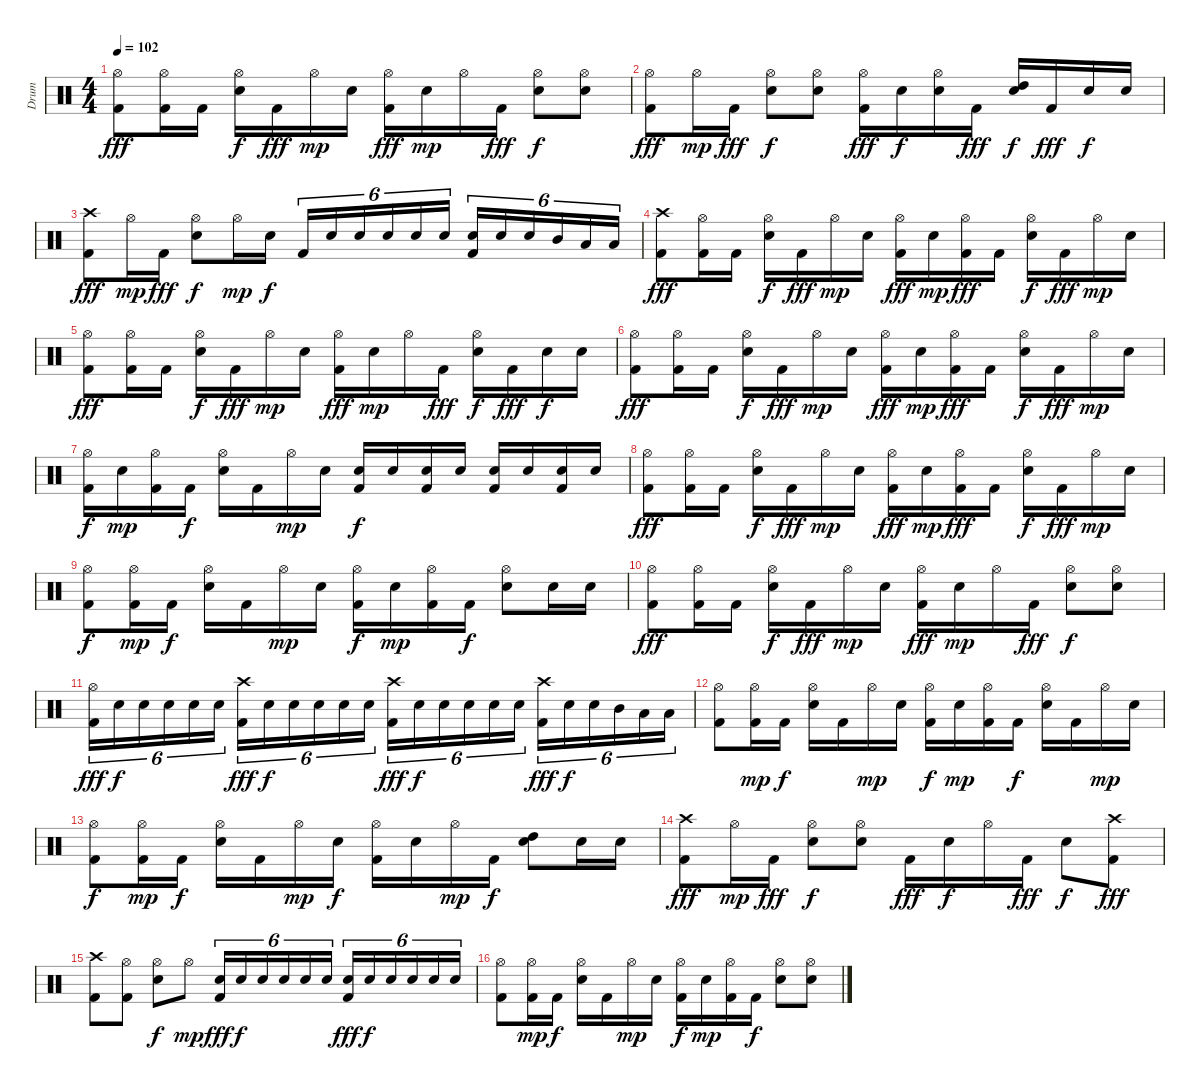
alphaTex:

\track ("Drum" "Drum") {instrument percussion}
\staff {score}
\articulation defaults
\ts (4 4)
\tempo 102
\clef neutral
\ks c
("Hi-Hat (open)" "Kick (hit) 2").8{dy fff} ("Hi-Hat (open)" "Kick (hit) 2").16 "Kick (hit) 2".16 ("Hi-Hat (open)" "Electric Snare (hit)").16{dy f} "Kick (hit) 2".16{dy fff} "Hi-Hat (open)".16{dy mp} "Electric Snare (hit)".16 ("Hi-Hat (open)" "Kick (hit) 2").16{dy fff} "Electric Snare (hit)".16{dy mp} "Hi-Hat (open)".16 "Kick (hit) 2".16{dy fff} ("Hi-Hat (open)" "Electric Snare (hit)").8{dy f} ("Hi-Hat (open)" "Electric Snare (hit)").8 |
("Hi-Hat (open)" "Kick (hit) 2").8{dy fff} "Hi-Hat (open)".16{dy mp} "Kick (hit) 2".16{dy fff} ("Hi-Hat (open)" "Electric Snare (hit)").8{dy f} ("Hi-Hat (open)" "Electric Snare (hit)").8 ("Hi-Hat (open)" "Kick (hit) 2").16{dy fff} "Electric Snare (hit)".16{dy f} ("Hi-Hat (open)" "Electric Snare (hit)").16 "Kick (hit) 2".16{dy fff} ("High Tom (hit)" "Electric Snare (hit)").16{dy f} "Kick (hit) 2".16{dy fff} "Electric Snare (hit)".16{dy f} "Electric Snare (hit)".16 |
("Crash high (hit)" "Kick (hit) 2").8{dy fff} "Hi-Hat (open)".16{dy mp} "Kick (hit) 2".16{dy fff} ("Hi-Hat (open)" "Electric Snare (hit)").8{dy f} "Hi-Hat (open)".16{dy mp} "Electric Snare (hit)".16{dy f} "Kick (hit) 2".16{tu (6 4)} "Electric Snare (hit)".16{tu (6 4)} "Electric Snare (hit)".16{tu (6 4)} "Electric Snare (hit)".16{tu (6 4)} "Electric Snare (hit)".16{tu (6 4)} "Electric Snare (hit)".16{tu (6 4)} ("Electric Snare (hit)" "Kick (hit) 2").16{tu (6 4)} "Electric Snare (hit)".16{tu (6 4)} "Electric Snare (hit)".16{tu (6 4)} "Mid Tom (hit)".16{tu (6 4)} "Low Tom (hit)".16{tu (6 4)} "Low Tom (hit)".16{tu (6 4)} |
("Crash high (hit)" "Kick (hit) 2").8{dy fff} ("Hi-Hat (open)" "Kick (hit) 2").16 "Kick (hit) 2".16 ("Hi-Hat (open)" "Electric Snare (hit)").16{dy f} "Kick (hit) 2".16{dy fff} "Hi-Hat (open)".16{dy mp} "Electric Snare (hit)".16 ("Hi-Hat (open)" "Kick (hit) 2").16{dy fff} "Electric Snare (hit)".16{dy mp} ("Hi-Hat (open)" "Kick (hit) 2").16{dy fff} "Kick (hit) 2".16 ("Hi-Hat (open)" "Electric Snare (hit)").16{dy f} "Kick (hit) 2".16{dy fff} "Hi-Hat (open)".16{dy mp} "Electric Snare (hit)".16 |
("Hi-Hat (open)" "Kick (hit) 2").8{dy fff} ("Hi-Hat (open)" "Kick (hit) 2").16 "Kick (hit) 2".16 ("Hi-Hat (open)" "Electric Snare (hit)").16{dy f} "Kick (hit) 2".16{dy fff} "Hi-Hat (open)".16{dy mp} "Electric Snare (hit)".16 ("Hi-Hat (open)" "Kick (hit) 2").16{dy fff} "Electric Snare (hit)".16{dy mp} "Hi-Hat (open)".16 "Kick (hit) 2".16{dy fff} ("Hi-Hat (open)" "Electric Snare (hit)").16{dy f} "Kick (hit) 2".16{dy fff} "Electric Snare (hit)".16{dy f} "Electric Snare (hit)".16 |
("Hi-Hat (open)" "Kick (hit) 2").8{dy fff} ("Hi-Hat (open)" "Kick (hit) 2").16 "Kick (hit) 2".16 ("Hi-Hat (open)" "Electric Snare (hit)").16{dy f} "Kick (hit) 2".16{dy fff} "Hi-Hat (open)".16{dy mp} "Electric Snare (hit)".16 ("Hi-Hat (open)" "Kick (hit) 2").16{dy fff} "Electric Snare (hit)".16{dy mp} ("Hi-Hat (open)" "Kick (hit) 2").16{dy fff} "Kick (hit) 2".16 ("Hi-Hat (open)" "Electric Snare (hit)").16{dy f} "Kick (hit) 2".16{dy fff} "Hi-Hat (open)".16{dy mp} "Electric Snare (hit)".16 |
("Hi-Hat (open)" "Kick (hit) 2").16{dy f} "Electric Snare (hit)".16{dy mp} ("Hi-Hat (open)" "Kick (hit) 2").16 "Kick (hit) 2".16{dy f} ("Hi-Hat (open)" "Electric Snare (hit)").16 "Kick (hit) 2".16 "Hi-Hat (open)".16{dy mp} "Electric Snare (hit)".16 ("Electric Snare (hit)" "Kick (hit) 2").16{dy f} "Electric Snare (hit)".16 ("Electric Snare (hit)" "Kick (hit) 2").16 "Electric Snare (hit)".16 ("Electric Snare (hit)" "Kick (hit) 2").16 "Electric Snare (hit)".16 ("Electric Snare (hit)" "Kick (hit) 2").16 "Electric Snare (hit)".16 |
("Hi-Hat (open)" "Kick (hit) 2").8{dy fff} ("Hi-Hat (open)" "Kick (hit) 2").16 "Kick (hit) 2".16 ("Hi-Hat (open)" "Electric Snare (hit)").16{dy f} "Kick (hit) 2".16{dy fff} "Hi-Hat (open)".16{dy mp} "Electric Snare (hit)".16 ("Hi-Hat (open)" "Kick (hit) 2").16{dy fff} "Electric Snare (hit)".16{dy mp} ("Hi-Hat (open)" "Kick (hit) 2").16{dy fff} "Kick (hit) 2".16 ("Hi-Hat (open)" "Electric Snare (hit)").16{dy f} "Kick (hit) 2".16{dy fff} "Hi-Hat (open)".16{dy mp} "Electric Snare (hit)".16 |
("Hi-Hat (open)" "Kick (hit) 2").8{dy f} ("Hi-Hat (open)" "Kick (hit) 2").16{dy mp} "Kick (hit) 2".16{dy f} ("Hi-Hat (open)" "Electric Snare (hit)").16 "Kick (hit) 2".16 "Hi-Hat (open)".16{dy mp} "Electric Snare (hit)".16 ("Hi-Hat (open)" "Kick (hit) 2").16{dy f} "Electric Snare (hit)".16{dy mp} ("Hi-Hat (open)" "Kick (hit) 2").16 "Kick (hit) 2".16{dy f} ("Hi-Hat (open)" "Electric Snare (hit)").8 "Electric Snare (hit)".16 "Electric Snare (hit)".16 |
("Hi-Hat (open)" "Kick (hit) 2").8{dy fff} ("Hi-Hat (open)" "Kick (hit) 2").16 "Kick (hit) 2".16 ("Hi-Hat (open)" "Electric Snare (hit)").16{dy f} "Kick (hit) 2".16{dy fff} "Hi-Hat (open)".16{dy mp} "Electric Snare (hit)".16 ("Hi-Hat (open)" "Kick (hit) 2").16{dy fff} "Electric Snare (hit)".16{dy mp} "Hi-Hat (open)".16 "Kick (hit) 2".16{dy fff} ("Hi-Hat (open)" "Electric Snare (hit)").8{dy f} ("Hi-Hat (open)" "Electric Snare (hit)").8 |
("Hi-Hat (open)" "Kick (hit) 2").16{tu (6 4) dy fff} "Electric Snare (hit)".16{tu (6 4) dy f} "Electric Snare (hit)".16{tu (6 4)} "Electric Snare (hit)".16{tu (6 4)} "Electric Snare (hit)".16{tu (6 4)} "Electric Snare (hit)".16{tu (6 4)} ("Crash high (hit)" "Kick (hit) 2").16{tu (6 4) dy fff} "Electric Snare (hit)".16{tu (6 4) dy f} "Electric Snare (hit)".16{tu (6 4)} "Electric Snare (hit)".16{tu (6 4)} "Electric Snare (hit)".16{tu (6 4)} "Electric Snare (hit)".16{tu (6 4)} ("Crash high (hit)" "Kick (hit) 2").16{tu (6 4) dy fff} "Electric Snare (hit)".16{tu (6 4) dy f} "Electric Snare (hit)".16{tu (6 4)} "Electric Snare (hit)".16{tu (6 4)} "Electric Snare (hit)".16{tu (6 4)} "Electric Snare (hit)".16{tu (6 4)} ("Crash high (hit)" "Kick (hit) 2").16{tu (6 4) dy fff} "Electric Snare (hit)".16{tu (6 4) dy f} "Electric Snare (hit)".16{tu (6 4)} "Mid Tom (hit)".16{tu (6 4)} "Low Tom (hit)".16{tu (6 4)} "Low Tom (hit)".16{tu (6 4)} |
("Hi-Hat (open)" "Kick (hit) 2").8 ("Hi-Hat (open)" "Kick (hit) 2").16{dy mp} "Kick (hit) 2".16{dy f} ("Hi-Hat (open)" "Electric Snare (hit)").16 "Kick (hit) 2".16 "Hi-Hat (open)".16{dy mp} "Electric Snare (hit)".16 ("Hi-Hat (open)" "Kick (hit) 2").16{dy f} "Electric Snare (hit)".16{dy mp} ("Hi-Hat (open)" "Kick (hit) 2").16 "Kick (hit) 2".16{dy f} ("Hi-Hat (open)" "Electric Snare (hit)").16 "Kick (hit) 2".16 "Hi-Hat (open)".16{dy mp} "Electric Snare (hit)".16 |
("Hi-Hat (open)" "Kick (hit) 2").8{dy f} ("Hi-Hat (open)" "Kick (hit) 2").16{dy mp} "Kick (hit) 2".16{dy f} ("Hi-Hat (open)" "Electric Snare (hit)").16 "Kick (hit) 2".16 "Hi-Hat (open)".16{dy mp} "Electric Snare (hit)".16{dy f} ("Hi-Hat (open)" "Kick (hit) 2").16 "Electric Snare (hit)".16 "Hi-Hat (open)".16{dy mp} "Kick (hit) 2".16{dy f} ("High Tom (hit)" "Electric Snare (hit)").8 "Electric Snare (hit)".16 "Electric Snare (hit)".16 |
("Crash high (hit)" "Kick (hit) 2").8{dy fff} "Hi-Hat (open)".16{dy mp} "Kick (hit) 2".16{dy fff} ("Hi-Hat (open)" "Electric Snare (hit)").8{dy f} ("Hi-Hat (open)" "Electric Snare (hit)").8 "Kick (hit) 2".16{dy fff} "Electric Snare (hit)".16{dy f} "Hi-Hat (open)".16 "Kick (hit) 2".16{dy fff} "Electric Snare (hit)".8{dy f} ("Crash high (hit)" "Kick (hit) 2").8{dy fff} |
("Crash high (hit)" "Kick (hit) 2").8 ("Hi-Hat (open)" "Kick (hit) 2").8 ("Hi-Hat (open)" "Electric Snare (hit)").8{dy f} "Hi-Hat (open)".8{dy mp} ("Electric Snare (hit)" "Kick (hit) 2").16{tu (6 4) dy fff} "Electric Snare (hit)".16{tu (6 4) dy f} "Electric Snare (hit)".16{tu (6 4)} "Electric Snare (hit)".16{tu (6 4)} "Electric Snare (hit)".16{tu (6 4)} "Electric Snare (hit)".16{tu (6 4)} ("Electric Snare (hit)" "Kick (hit) 2").16{tu (6 4) dy fff} "Electric Snare (hit)".16{tu (6 4) dy f} "Electric Snare (hit)".16{tu (6 4)} "Electric Snare (hit)".16{tu (6 4)} "Electric Snare (hit)".16{tu (6 4)} "Electric Snare (hit)".16{tu (6 4)} |
("Hi-Hat (open)" "Kick (hit) 2").8 ("Hi-Hat (open)" "Kick (hit) 2").16{dy mp} "Kick (hit) 2".16{dy f} ("Hi-Hat (open)" "Electric Snare (hit)").16 "Kick (hit) 2".16 "Hi-Hat (open)".16{dy mp} "Electric Snare (hit)".16 ("Hi-Hat (open)" "Kick (hit) 2").16{dy f} "Electric Snare (hit)".16{dy mp} ("Hi-Hat (open)" "Kick (hit) 2").16 "Kick (hit) 2".16{dy f} ("Hi-Hat (open)" "Electric Snare (hit)").8 ("Hi-Hat (open)" "Electric Snare (hit)").8
